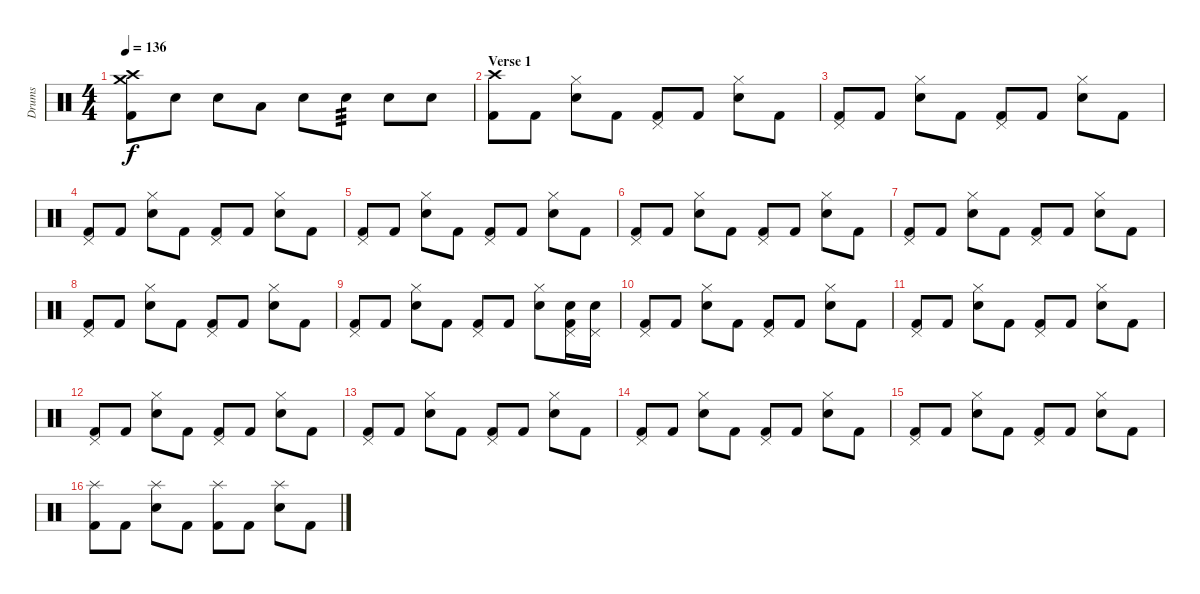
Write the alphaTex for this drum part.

\track ("Drums" "Drums") {instrument percussion}
\staff {score}
\articulation defaults
\ts (4 4)
\tempo 136
\clef neutral
\ks c
("Crash medium (hit)" "Crash high (hit)" "Kick (hit) 2").8{dy f} "Electric Snare (hit)".8 "Electric Snare (hit)".8 "Low Tom (hit)".8 "Electric Snare (hit)".8 "Snare (hit) 2".8{tp 3} "Electric Snare (hit)".8 "Electric Snare (hit)".8 |
\section ("" "Verse 1")
("Crash high (hit)" "Kick (hit) 2").8 "Kick (hit) 2".8 ("Hi-Hat (closed)" "Electric Snare (hit)").8 "Kick (hit) 2".8 ("Pedal Hi-Hat (hit)" "Kick (hit) 2").8 "Kick (hit) 2".8 ("Hi-Hat (closed)" "Electric Snare (hit)").8 "Kick (hit) 2".8 |
("Pedal Hi-Hat (hit)" "Kick (hit) 2").8 "Kick (hit) 2".8 ("Hi-Hat (closed)" "Electric Snare (hit)").8 "Kick (hit) 2".8 ("Pedal Hi-Hat (hit)" "Kick (hit) 2").8 "Kick (hit) 2".8 ("Hi-Hat (closed)" "Electric Snare (hit)").8 "Kick (hit) 2".8 |
("Pedal Hi-Hat (hit)" "Kick (hit) 2").8 "Kick (hit) 2".8 ("Hi-Hat (closed)" "Electric Snare (hit)").8 "Kick (hit) 2".8 ("Pedal Hi-Hat (hit)" "Kick (hit) 2").8 "Kick (hit) 2".8 ("Hi-Hat (closed)" "Electric Snare (hit)").8 "Kick (hit) 2".8 |
("Pedal Hi-Hat (hit)" "Kick (hit) 2").8 "Kick (hit) 2".8 ("Hi-Hat (closed)" "Electric Snare (hit)").8 "Kick (hit) 2".8 ("Pedal Hi-Hat (hit)" "Kick (hit) 2").8 "Kick (hit) 2".8 ("Hi-Hat (closed)" "Electric Snare (hit)").8 "Kick (hit) 2".8 |
("Pedal Hi-Hat (hit)" "Kick (hit) 2").8 "Kick (hit) 2".8 ("Hi-Hat (closed)" "Electric Snare (hit)").8 "Kick (hit) 2".8 ("Pedal Hi-Hat (hit)" "Kick (hit) 2").8 "Kick (hit) 2".8 ("Hi-Hat (closed)" "Electric Snare (hit)").8 "Kick (hit) 2".8 |
("Pedal Hi-Hat (hit)" "Kick (hit) 2").8 "Kick (hit) 2".8 ("Hi-Hat (closed)" "Electric Snare (hit)").8 "Kick (hit) 2".8 ("Pedal Hi-Hat (hit)" "Kick (hit) 2").8 "Kick (hit) 2".8 ("Hi-Hat (closed)" "Electric Snare (hit)").8 "Kick (hit) 2".8 |
("Pedal Hi-Hat (hit)" "Kick (hit) 2").8 "Kick (hit) 2".8 ("Hi-Hat (closed)" "Electric Snare (hit)").8 "Kick (hit) 2".8 ("Pedal Hi-Hat (hit)" "Kick (hit) 2").8 "Kick (hit) 2".8 ("Hi-Hat (closed)" "Electric Snare (hit)").8 "Kick (hit) 2".8 |
("Pedal Hi-Hat (hit)" "Kick (hit) 2").8 "Kick (hit) 2".8 ("Hi-Hat (closed)" "Electric Snare (hit)").8 "Kick (hit) 2".8 ("Pedal Hi-Hat (hit)" "Kick (hit) 2").8 "Kick (hit) 2".8 ("Hi-Hat (closed)" "Electric Snare (hit)").8 ("Pedal Hi-Hat (hit)" "Electric Snare (hit)" "Kick (hit) 2").16 ("Pedal Hi-Hat (hit)" "Electric Snare (hit)").16 |
("Pedal Hi-Hat (hit)" "Kick (hit) 2").8 "Kick (hit) 2".8 ("Hi-Hat (closed)" "Electric Snare (hit)").8 "Kick (hit) 2".8 ("Pedal Hi-Hat (hit)" "Kick (hit) 2").8 "Kick (hit) 2".8 ("Hi-Hat (closed)" "Electric Snare (hit)").8 "Kick (hit) 2".8 |
("Pedal Hi-Hat (hit)" "Kick (hit) 2").8 "Kick (hit) 2".8 ("Hi-Hat (closed)" "Electric Snare (hit)").8 "Kick (hit) 2".8 ("Pedal Hi-Hat (hit)" "Kick (hit) 2").8 "Kick (hit) 2".8 ("Hi-Hat (closed)" "Electric Snare (hit)").8 "Kick (hit) 2".8 |
("Pedal Hi-Hat (hit)" "Kick (hit) 2").8 "Kick (hit) 2".8 ("Hi-Hat (closed)" "Electric Snare (hit)").8 "Kick (hit) 2".8 ("Pedal Hi-Hat (hit)" "Kick (hit) 2").8 "Kick (hit) 2".8 ("Hi-Hat (closed)" "Electric Snare (hit)").8 "Kick (hit) 2".8 |
("Pedal Hi-Hat (hit)" "Kick (hit) 2").8 "Kick (hit) 2".8 ("Hi-Hat (closed)" "Electric Snare (hit)").8 "Kick (hit) 2".8 ("Pedal Hi-Hat (hit)" "Kick (hit) 2").8 "Kick (hit) 2".8 ("Hi-Hat (closed)" "Electric Snare (hit)").8 "Kick (hit) 2".8 |
("Pedal Hi-Hat (hit)" "Kick (hit) 2").8 "Kick (hit) 2".8 ("Hi-Hat (closed)" "Electric Snare (hit)").8 "Kick (hit) 2".8 ("Pedal Hi-Hat (hit)" "Kick (hit) 2").8 "Kick (hit) 2".8 ("Hi-Hat (closed)" "Electric Snare (hit)").8 "Kick (hit) 2".8 |
("Pedal Hi-Hat (hit)" "Kick (hit) 2").8 "Kick (hit) 2".8 ("Hi-Hat (closed)" "Electric Snare (hit)").8 "Kick (hit) 2".8 ("Pedal Hi-Hat (hit)" "Kick (hit) 2").8 "Kick (hit) 2".8 ("Hi-Hat (closed)" "Electric Snare (hit)").8 "Kick (hit) 2".8 |
("Splash (hit)" "Kick (hit) 2").8 "Kick (hit) 2".8 ("Splash (hit)" "Electric Snare (hit)").8 "Kick (hit) 2".8 ("Splash (hit)" "Kick (hit) 2").8 "Kick (hit) 2".8 ("Splash (hit)" "Electric Snare (hit)").8 "Kick (hit) 2".8
